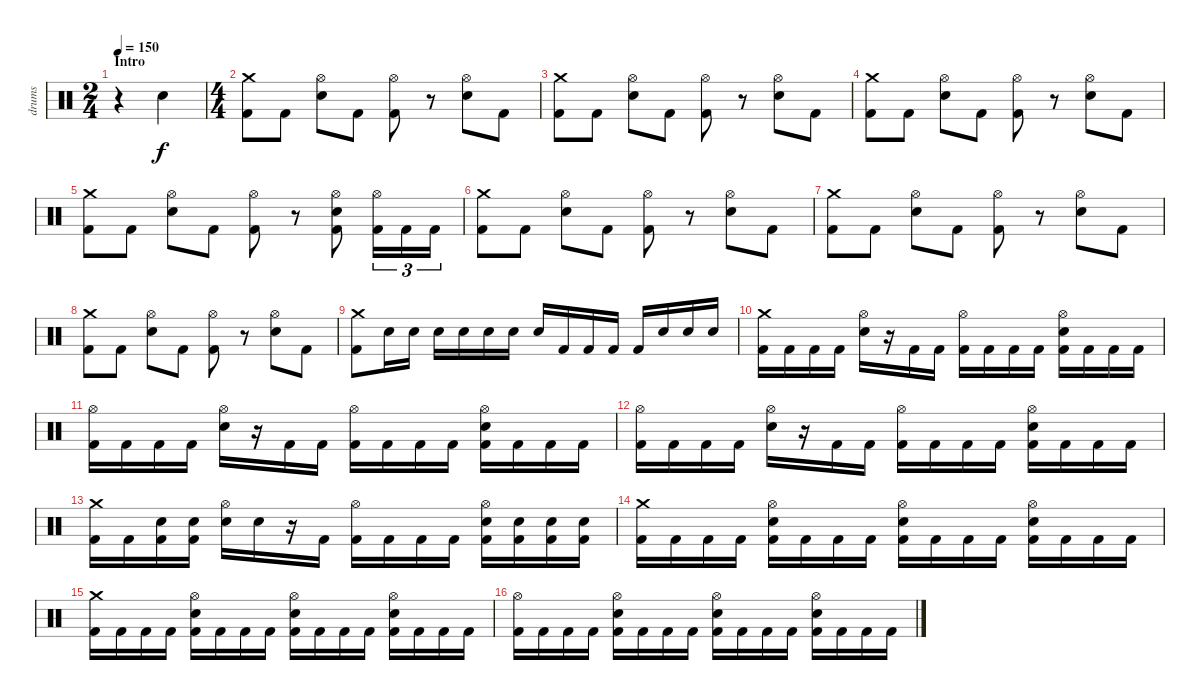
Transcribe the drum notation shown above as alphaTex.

\track ("drums" "drums") {instrument percussion}
\staff {score}
\articulation defaults
\ts (2 4)
\section ("" "Intro")
\tempo 150
\clef neutral
\ks c
r.4{dy f} "Electric Snare (hit)".4 |
\ts (4 4)
("Crash medium (hit)" "Kick (hit) 2").8 "Kick (hit) 2".8 ("Hi-Hat (open)" "Electric Snare (hit)").8 "Kick (hit) 2".8 ("Hi-Hat (open)" "Kick (hit) 2").8 r.8 ("Hi-Hat (open)" "Electric Snare (hit)").8 "Kick (hit) 2".8 |
("Crash medium (hit)" "Kick (hit) 2").8 "Kick (hit) 2".8 ("Hi-Hat (open)" "Electric Snare (hit)").8 "Kick (hit) 2".8 ("Hi-Hat (open)" "Kick (hit) 2").8 r.8 ("Hi-Hat (open)" "Electric Snare (hit)").8 "Kick (hit) 2".8 |
("Crash medium (hit)" "Kick (hit) 2").8 "Kick (hit) 2".8 ("Hi-Hat (open)" "Electric Snare (hit)").8 "Kick (hit) 2".8 ("Hi-Hat (open)" "Kick (hit) 2").8 r.8 ("Hi-Hat (open)" "Electric Snare (hit)").8 "Kick (hit) 2".8 |
("Crash medium (hit)" "Kick (hit) 2").8 "Kick (hit) 2".8 ("Hi-Hat (open)" "Electric Snare (hit)").8 "Kick (hit) 2".8 ("Hi-Hat (open)" "Kick (hit) 2").8 r.8 ("Hi-Hat (open)" "Electric Snare (hit)" "Kick (hit) 2").8 ("Hi-Hat (open)" "Kick (hit) 2").16{tu (3 2)} "Kick (hit) 2".16{tu (3 2)} "Kick (hit) 2".16{tu (3 2)} |
("Crash medium (hit)" "Kick (hit) 2").8 "Kick (hit) 2".8 ("Hi-Hat (open)" "Electric Snare (hit)").8 "Kick (hit) 2".8 ("Hi-Hat (open)" "Kick (hit) 2").8 r.8 ("Hi-Hat (open)" "Electric Snare (hit)").8 "Kick (hit) 2".8 |
("Crash medium (hit)" "Kick (hit) 2").8 "Kick (hit) 2".8 ("Hi-Hat (open)" "Electric Snare (hit)").8 "Kick (hit) 2".8 ("Hi-Hat (open)" "Kick (hit) 2").8 r.8 ("Hi-Hat (open)" "Electric Snare (hit)").8 "Kick (hit) 2".8 |
("Crash medium (hit)" "Kick (hit) 2").8 "Kick (hit) 2".8 ("Hi-Hat (open)" "Electric Snare (hit)").8 "Kick (hit) 2".8 ("Hi-Hat (open)" "Kick (hit) 2").8 r.8 ("Hi-Hat (open)" "Electric Snare (hit)").8 "Kick (hit) 2".8 |
("Crash medium (hit)" "Kick (hit) 2").8 "Electric Snare (hit)".16 "Electric Snare (hit)".16 "Electric Snare (hit)".16 "Snare (hit) 2".16 "Snare (hit) 2".16 "Snare (hit) 2".16 "Snare (hit) 2".16 "Kick (hit) 2".16 "Kick (hit) 2".16 "Kick (hit) 2".16 "Kick (hit) 2".16 "Electric Snare (hit)".16 "Electric Snare (hit)".16 "Snare (hit) 2".16 |
("Crash medium (hit)" "Kick (hit) 2").16 "Kick (hit) 2".16 "Kick (hit) 2".16 "Kick (hit) 2".16 ("Hi-Hat (open)" "Electric Snare (hit)").16 r.16 "Kick (hit) 2".16 "Kick (hit) 2".16 ("Hi-Hat (open)" "Kick (hit) 2").16 "Kick (hit) 2".16 "Kick (hit) 2".16 "Kick (hit) 2".16 ("Hi-Hat (open)" "Electric Snare (hit)" "Kick (hit) 2").16 "Kick (hit) 2".16 "Kick (hit) 2".16 "Kick (hit) 2".16 |
("Hi-Hat (open)" "Kick (hit) 2").16 "Kick (hit) 2".16 "Kick (hit) 2".16 "Kick (hit) 2".16 ("Hi-Hat (open)" "Electric Snare (hit)").16 r.16 "Kick (hit) 2".16 "Kick (hit) 2".16 ("Hi-Hat (open)" "Kick (hit) 2").16 "Kick (hit) 2".16 "Kick (hit) 2".16 "Kick (hit) 2".16 ("Hi-Hat (open)" "Electric Snare (hit)" "Kick (hit) 2").16 "Kick (hit) 2".16 "Kick (hit) 2".16 "Kick (hit) 2".16 |
("Hi-Hat (open)" "Kick (hit) 2").16 "Kick (hit) 2".16 "Kick (hit) 2".16 "Kick (hit) 2".16 ("Hi-Hat (open)" "Electric Snare (hit)").16 r.16 "Kick (hit) 2".16 "Kick (hit) 2".16 ("Hi-Hat (open)" "Kick (hit) 2").16 "Kick (hit) 2".16 "Kick (hit) 2".16 "Kick (hit) 2".16 ("Hi-Hat (open)" "Electric Snare (hit)" "Kick (hit) 2").16 "Kick (hit) 2".16 "Kick (hit) 2".16 "Kick (hit) 2".16 |
("Crash medium (hit)" "Kick (hit) 2").16 "Kick (hit) 2".16 ("Electric Snare (hit)" "Kick (hit) 2").16 ("Electric Snare (hit)" "Kick (hit) 2").16 ("Hi-Hat (open)" "Electric Snare (hit)").16 "Electric Snare (hit)".16 r.16 "Kick (hit) 2".16 ("Hi-Hat (open)" "Kick (hit) 2").16 "Kick (hit) 2".16 "Kick (hit) 2".16 "Kick (hit) 2".16 ("Hi-Hat (open)" "Electric Snare (hit)" "Kick (hit) 2").16 ("Electric Snare (hit)" "Kick (hit) 2").16 ("Electric Snare (hit)" "Kick (hit) 2").16 ("Electric Snare (hit)" "Kick (hit) 2").16 |
("Crash medium (hit)" "Kick (hit) 2").16 "Kick (hit) 2".16 "Kick (hit) 2".16 "Kick (hit) 2".16 ("Hi-Hat (open)" "Electric Snare (hit)" "Kick (hit) 2").16 "Kick (hit) 2".16 "Kick (hit) 2".16 "Kick (hit) 2".16 ("Hi-Hat (open)" "Electric Snare (hit)" "Kick (hit) 2").16 "Kick (hit) 2".16 "Kick (hit) 2".16 "Kick (hit) 2".16 ("Hi-Hat (open)" "Electric Snare (hit)" "Kick (hit) 2").16 "Kick (hit) 2".16 "Kick (hit) 2".16 "Kick (hit) 2".16 |
("Crash medium (hit)" "Kick (hit) 2").16 "Kick (hit) 2".16 "Kick (hit) 2".16 "Kick (hit) 2".16 ("Hi-Hat (open)" "Electric Snare (hit)" "Kick (hit) 2").16 "Kick (hit) 2".16 "Kick (hit) 2".16 "Kick (hit) 2".16 ("Hi-Hat (open)" "Electric Snare (hit)" "Kick (hit) 2").16 "Kick (hit) 2".16 "Kick (hit) 2".16 "Kick (hit) 2".16 ("Hi-Hat (open)" "Electric Snare (hit)" "Kick (hit) 2").16 "Kick (hit) 2".16 "Kick (hit) 2".16 "Kick (hit) 2".16 |
("Hi-Hat (open)" "Kick (hit) 2").16 "Kick (hit) 2".16 "Kick (hit) 2".16 "Kick (hit) 2".16 ("Hi-Hat (open)" "Electric Snare (hit)" "Kick (hit) 2").16 "Kick (hit) 2".16 "Kick (hit) 2".16 "Kick (hit) 2".16 ("Hi-Hat (open)" "Electric Snare (hit)" "Kick (hit) 2").16 "Kick (hit) 2".16 "Kick (hit) 2".16 "Kick (hit) 2".16 ("Hi-Hat (open)" "Electric Snare (hit)" "Kick (hit) 2").16 "Kick (hit) 2".16 "Kick (hit) 2".16 "Kick (hit) 2".16
